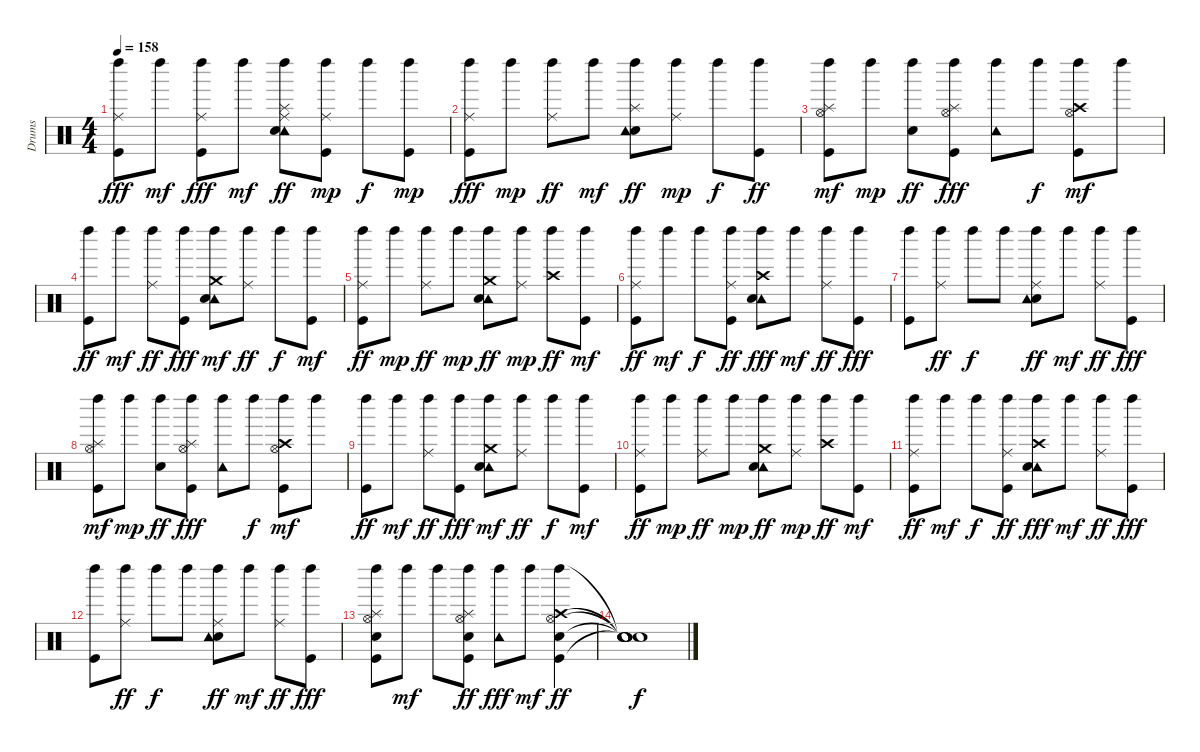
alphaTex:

\track ("Drums" "Drums") {instrument percussion}
\staff {score}
\articulation defaults
\ts (4 4)
\tempo 158
\clef neutral
\ks c
("Ride (middle)" "Left Maraca (hit)" "Kick (hit)").8{dy fff} "Left Maraca (hit)".8{dy mf} ("Ride (middle)" "Kick (hit)" "Left Maraca (hit)").8{dy fff} "Left Maraca (hit)".8{dy mf} ("Ride (middle)" "Splash (hit)" "Tambourine (hit)" "Electric Snare (hit)" "Left Maraca (hit)").8{dy ff} ("Kick (hit)" "Ride (middle)" "Left Maraca (hit)").8{dy mp} "Left Maraca (hit)".8{dy f} ("Kick (hit)" "Left Maraca (hit)").8{dy mp} |
("Ride (middle)" "Left Maraca (hit)" "Kick (hit)").8{dy fff} "Left Maraca (hit)".8{dy mp} ("Ride (middle)" "Left Maraca (hit)").8{dy ff} "Left Maraca (hit)".8{dy mf} ("Electric Snare (hit)" "Splash (hit)" "Tambourine (hit)" "Left Maraca (hit)").8{dy ff} ("Ride (middle)" "Left Maraca (hit)").8{dy mp} "Left Maraca (hit)".8{dy f} ("Kick (hit)" "Left Maraca (hit)").8{dy ff} |
("Splash (hit)" "Kick (hit)" "Hi-Hat (open)" "Left Maraca (hit)").8{dy mf} "Left Maraca (hit)".8{dy mp} ("Electric Snare (hit)" "Left Maraca (hit)").8{dy ff} ("Kick (hit)" "Left Maraca (hit)" "Splash (hit)" "Hi-Hat (open)").8{dy fff} ("Tambourine (hit)" "Left Maraca (hit)").8 "Left Maraca (hit)".8{dy f} ("Kick (hit)" "Crash high (hit)" "Hi-Hat (open)" "Left Maraca (hit)").8{dy mf} "Left Maraca (hit)".8 |
("Kick (hit)" "Left Maraca (hit)").8{dy ff} "Left Maraca (hit)".8{dy mf} ("Ride (middle)" "Left Maraca (hit)").8{dy ff} ("Left Maraca (hit)" "Kick (hit)").8{dy fff} ("Tambourine (hit)" "Electric Snare (hit)" "Crash medium (hit)" "Left Maraca (hit)").8{dy mf} ("Left Maraca (hit)" "Ride (middle)").8{dy ff} "Left Maraca (hit)".8{dy f} ("Kick (hit)" "Left Maraca (hit)").8{dy mf} |
("Kick (hit)" "Ride (middle)" "Left Maraca (hit)").8{dy ff} "Left Maraca (hit)".8{dy mp} ("Ride (middle)" "Left Maraca (hit)").8{dy ff} "Left Maraca (hit)".8{dy mp} ("Crash medium (hit)" "Tambourine (hit)" "Electric Snare (hit)" "Left Maraca (hit)").8{dy ff} ("Ride (middle)" "Left Maraca (hit)").8{dy mp} ("Crash high (hit)" "Left Maraca (hit)").8{dy ff} ("Kick (hit)" "Left Maraca (hit)").8{dy mf} |
("Kick (hit)" "Ride (middle)" "Left Maraca (hit)").8{dy ff} "Left Maraca (hit)".8{dy mf} "Left Maraca (hit)".8{dy f} ("Left Maraca (hit)" "Kick (hit)" "Ride (middle)").8{dy ff} ("Crash high (hit)" "Tambourine (hit)" "Electric Snare (hit)" "Left Maraca (hit)").8{dy fff} "Left Maraca (hit)".8{dy mf} ("Ride (middle)" "Left Maraca (hit)").8{dy ff} ("Left Maraca (hit)" "Kick (hit)").8{dy fff} |
("Kick (hit)" "Left Maraca (hit)").8 ("Left Maraca (hit)" "Ride (middle)").8{dy ff} "Left Maraca (hit)".8{dy f} "Left Maraca (hit)".8 ("Ride (middle)" "Electric Snare (hit)" "Tambourine (hit)" "Left Maraca (hit)").8{dy ff} "Left Maraca (hit)".8{dy mf} ("Ride (middle)" "Left Maraca (hit)").8{dy ff} ("Left Maraca (hit)" "Kick (hit)").8{dy fff} |
("Splash (hit)" "Kick (hit)" "Hi-Hat (open)" "Left Maraca (hit)").8{dy mf} "Left Maraca (hit)".8{dy mp} ("Electric Snare (hit)" "Left Maraca (hit)").8{dy ff} ("Kick (hit)" "Left Maraca (hit)" "Splash (hit)" "Hi-Hat (open)").8{dy fff} ("Tambourine (hit)" "Left Maraca (hit)").8 "Left Maraca (hit)".8{dy f} ("Kick (hit)" "Crash high (hit)" "Hi-Hat (open)" "Left Maraca (hit)").8{dy mf} "Left Maraca (hit)".8 |
("Kick (hit)" "Left Maraca (hit)").8{dy ff} "Left Maraca (hit)".8{dy mf} ("Ride (middle)" "Left Maraca (hit)").8{dy ff} ("Left Maraca (hit)" "Kick (hit)").8{dy fff} ("Tambourine (hit)" "Electric Snare (hit)" "Crash medium (hit)" "Left Maraca (hit)").8{dy mf} ("Left Maraca (hit)" "Ride (middle)").8{dy ff} "Left Maraca (hit)".8{dy f} ("Kick (hit)" "Left Maraca (hit)").8{dy mf} |
("Kick (hit)" "Ride (middle)" "Left Maraca (hit)").8{dy ff} "Left Maraca (hit)".8{dy mp} ("Ride (middle)" "Left Maraca (hit)").8{dy ff} "Left Maraca (hit)".8{dy mp} ("Crash medium (hit)" "Tambourine (hit)" "Electric Snare (hit)" "Left Maraca (hit)").8{dy ff} ("Ride (middle)" "Left Maraca (hit)").8{dy mp} ("Crash high (hit)" "Left Maraca (hit)").8{dy ff} ("Kick (hit)" "Left Maraca (hit)").8{dy mf} |
("Kick (hit)" "Ride (middle)" "Left Maraca (hit)").8{dy ff} "Left Maraca (hit)".8{dy mf} "Left Maraca (hit)".8{dy f} ("Left Maraca (hit)" "Kick (hit)" "Ride (middle)").8{dy ff} ("Crash high (hit)" "Tambourine (hit)" "Electric Snare (hit)" "Left Maraca (hit)").8{dy fff} "Left Maraca (hit)".8{dy mf} ("Ride (middle)" "Left Maraca (hit)").8{dy ff} ("Left Maraca (hit)" "Kick (hit)").8{dy fff} |
("Kick (hit)" "Left Maraca (hit)").8 ("Left Maraca (hit)" "Ride (middle)").8{dy ff} "Left Maraca (hit)".8{dy f} "Left Maraca (hit)".8 ("Ride (middle)" "Electric Snare (hit)" "Tambourine (hit)" "Left Maraca (hit)").8{dy ff} "Left Maraca (hit)".8{dy mf} ("Ride (middle)" "Left Maraca (hit)").8{dy ff} ("Left Maraca (hit)" "Kick (hit)").8{dy fff} |
("Splash (hit)" "Electric Snare (hit)" "Kick (hit)" "Hi-Hat (open)" "Left Maraca (hit)").8 "Left Maraca (hit)".8{dy mf} "Left Maraca (hit)".8 ("Kick (hit)" "Electric Snare (hit)" "Splash (hit)" "Left Maraca (hit)" "Hi-Hat (open)").8{dy ff} ("Left Maraca (hit)" "Tambourine (hit)").8{dy fff} "Left Maraca (hit)".8{dy mf} ("Electric Snare (hit)" "Kick (hit)" "Hi-Hat (open)" "Crash high (hit)" "Left Maraca (hit)").4{dy ff} |
("Snare (hit)"{t} "Snare (hit)"{t} "Snare (hit)"{t} "Snare (hit)"{t} "Snare (hit)"{t}).1{dy f}
